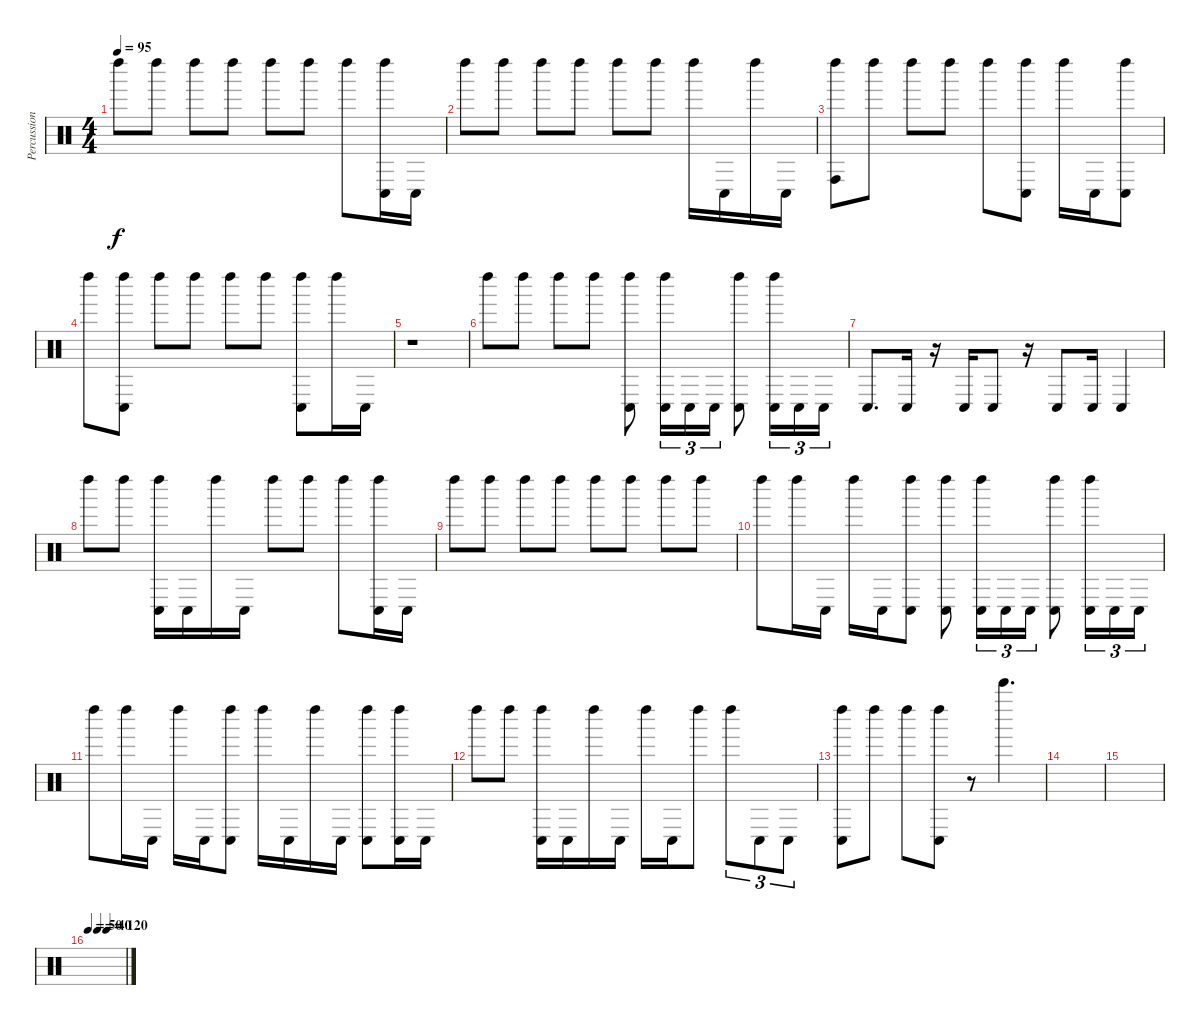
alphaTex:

\track ("Percussion" "Percussion") {instrument percussion}
\staff {score}
\articulation defaults
\ts (4 4)
\tempo 95
\clef neutral
\ks c "Left Maraca (hit)".8{dy f} "Left Maraca (hit)".8 "Left Maraca (hit)".8 "Left Maraca (hit)".8 "Left Maraca (hit)".8 "Left Maraca (hit)".8 "Left Maraca (hit)".8
("Left Maraca (hit)" "Conga low (hit)").16 "Conga low (hit)".16 |
"Left Maraca (hit)".8 "Left Maraca (hit)".8 "Left Maraca (hit)".8 "Left Maraca (hit)".8 "Left Maraca (hit)".8 "Left Maraca (hit)".8 "Left Maraca (hit)".16 "Conga low (hit)".16 "Left Maraca (hit)".16 "Conga low (hit)".16 |
("Left Maraca (hit)" "Conga high (hit)").8 "Left Maraca (hit)".8 "Left Maraca (hit)".8 "Left Maraca (hit)".8 "Left Maraca (hit)".8 ("Left Maraca (hit)" "Conga low (hit)").8 "Left Maraca (hit)".16 "Conga low (hit)".16 ("Left Maraca (hit)" "Conga low (hit)").8 |
"Left Maraca (hit)".8 ("Left Maraca (hit)" "Conga low (hit)").8 "Left Maraca (hit)".8 "Left Maraca (hit)".8 "Left Maraca (hit)".8 "Left Maraca (hit)".8 ("Left Maraca (hit)" "Conga low (hit)").8 "Left Maraca (hit)".16 "Conga low (hit)".16 |
r.1 |
"Left Maraca (hit)".8 "Left Maraca (hit)".8 "Left Maraca (hit)".8 "Left Maraca (hit)".8 ("Left Maraca (hit)" "Conga low (hit)").8 ("Left Maraca (hit)" "Conga low (hit)").16{tu (3 2)} "Conga low (hit)".16{tu (3 2)} "Conga low (hit)".16{tu (3 2)} ("Left Maraca (hit)" "Conga low (hit)").8 ("Left Maraca (hit)" "Conga low (hit)").16{tu (3 2)} "Conga low (hit)".16{tu (3 2)} "Conga low (hit)".16{tu (3 2)} |
"Conga low (hit)".8{d} "Conga low (hit)".16 r.16 "Conga low (hit)".16 "Conga low (hit)".8 r.16 "Conga low (hit)".8 "Conga low (hit)".16 "Conga low (hit)".4 |
"Left Maraca (hit)".8 "Left Maraca (hit)".8 ("Left Maraca (hit)" "Conga low (hit)").16 "Conga low (hit)".16 "Left Maraca (hit)".16 "Conga low (hit)".16 "Left Maraca (hit)".8 "Left Maraca (hit)".8 "Left Maraca (hit)".8 ("Left Maraca (hit)" "Conga low (hit)").16 "Conga low (hit)".16 |
"Left Maraca (hit)".8 "Left Maraca (hit)".8 "Left Maraca (hit)".8 "Left Maraca (hit)".8 "Left Maraca (hit)".8 "Left Maraca (hit)".8 "Left Maraca (hit)".8 "Left Maraca (hit)".8 |
"Left Maraca (hit)".8 "Left Maraca (hit)".16 "Conga low (hit)".16 "Left Maraca (hit)".16 "Conga low (hit)".16 ("Left Maraca (hit)" "Conga low (hit)").8 ("Left Maraca (hit)" "Conga low (hit)").8 ("Left Maraca (hit)" "Conga low (hit)").16{tu (3 2)} "Conga low (hit)".16{tu (3 2)} "Conga low (hit)".16{tu (3 2)} ("Left Maraca (hit)" "Conga low (hit)").8 ("Left Maraca (hit)" "Conga low (hit)").16{tu (3 2)} "Conga low (hit)".16{tu (3 2)} "Conga low (hit)".16{tu (3 2)} |
"Left Maraca (hit)".8 "Left Maraca (hit)".16 "Conga low (hit)".16 "Left Maraca (hit)".16 "Conga low (hit)".16 ("Left Maraca (hit)" "Conga low (hit)").8 "Left Maraca (hit)".16 "Conga low (hit)".16 "Left Maraca (hit)".16 "Conga low (hit)".16 ("Left Maraca (hit)" "Conga low (hit)").8 ("Left Maraca (hit)" "Conga low (hit)").16 "Conga low (hit)".16 |
"Left Maraca (hit)".8 "Left Maraca (hit)".8 ("Left Maraca (hit)" "Conga low (hit)").16 "Conga low (hit)".16 "Left Maraca (hit)".16 "Conga low (hit)".16 "Left Maraca (hit)".16 "Conga low (hit)".16 "Left Maraca (hit)".8 "Left Maraca (hit)".8{tu (3 2)} "Conga low (hit)".8{tu (3 2)} "Conga low (hit)".8{tu (3 2)} |
("Left Maraca (hit)" "Conga low (hit)").8 "Left Maraca (hit)".8 "Left Maraca (hit)".8 ("Left Maraca (hit)" "Conga low (hit)").8 r.8 "Bell Tree (hit)".4{d} |
|
|
\tempo 50
\tempo (40 0.25)
\tempo (120 0.5)
